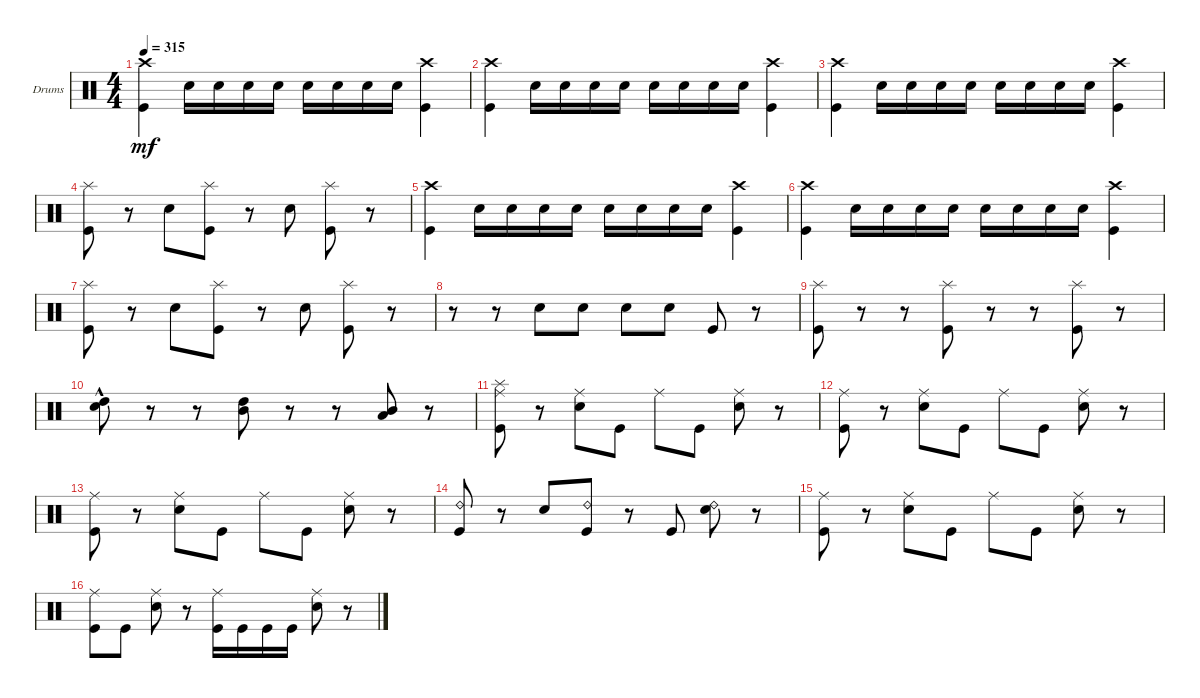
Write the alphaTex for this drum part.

\bracketExtendMode groupsimilarinstruments
\firstSystemTrackNameOrientation horizontal
\otherSystemsTrackNameOrientation horizontal
\track ("Drumkit" "Drums") {instrument percussion}
\staff {score}
\articulation defaults
\ts (4 4)
\tempo 315
\clef neutral
\ks c
("Kick (hit)" "Crash high (hit)").4{dy mf} "Snare (hit) 2".16 "Snare (hit) 2".16 "Snare (hit) 2".16 "Snare (hit) 2".16 "Snare (hit) 2".16 "Snare (hit) 2".16 "Snare (hit) 2".16 "Snare (hit) 2".16 ("Kick (hit)" "Crash high (hit)").4 |
("Kick (hit)" "Crash high (hit)").4 "Snare (hit) 2".16 "Snare (hit) 2".16 "Snare (hit) 2".16 "Snare (hit) 2".16 "Snare (hit) 2".16 "Snare (hit) 2".16 "Snare (hit) 2".16 "Snare (hit) 2".16 ("Kick (hit)" "Crash high (hit)").4 |
("Kick (hit)" "Crash high (hit)").4 "Snare (hit) 2".16 "Snare (hit) 2".16 "Snare (hit) 2".16 "Snare (hit) 2".16 "Snare (hit) 2".16 "Snare (hit) 2".16 "Snare (hit) 2".16 "Snare (hit) 2".16 ("Kick (hit)" "Crash high (hit)").4 |
("Kick (hit)" "Splash (hit)").8 r.8 "Snare (hit) 2".8 ("Kick (hit)" "Splash (hit)").8 r.8 "Snare (hit) 2".8 ("Kick (hit)" "Splash (hit)").8 r.8 |
("Kick (hit)" "Crash high (hit)").4 "Snare (hit) 2".16 "Snare (hit) 2".16 "Snare (hit) 2".16 "Snare (hit) 2".16 "Snare (hit) 2".16 "Snare (hit) 2".16 "Snare (hit) 2".16 "Snare (hit) 2".16 ("Kick (hit)" "Crash high (hit)").4 |
("Kick (hit)" "Crash high (hit)").4 "Snare (hit) 2".16 "Snare (hit) 2".16 "Snare (hit) 2".16 "Snare (hit) 2".16 "Snare (hit) 2".16 "Snare (hit) 2".16 "Snare (hit) 2".16 "Snare (hit) 2".16 ("Kick (hit)" "Crash high (hit)").4 |
("Kick (hit)" "Splash (hit)").8 r.8 "Snare (hit) 2".8 ("Kick (hit)" "Splash (hit)").8 r.8 "Snare (hit) 2".8 ("Kick (hit)" "Splash (hit)").8 r.8 |
r.8 r.8 "Snare (hit) 2".8 "Snare (hit) 2".8 "Snare (hit) 2".8 "Snare (hit) 2".8 "Kick (hit)".8 r.8 |
("Kick (hit)" "Splash (hit)").8 r.8 r.8 ("Kick (hit)" "Splash (hit)").8 r.8 r.8 ("Kick (hit)" "Splash (hit)").8 r.8 |
("Snare (hit) 2"{hac} "High Tom (hit)").8 r.8 r.8 ("High Tom (hit)" "Mid Tom (hit)").8 r.8 r.8 ("Mid Tom (hit)" "Low Tom (hit)").8 r.8 |
("Kick (hit)" "Ride (middle)" "Splash (hit)").8 r.8 ("Snare (hit) 2" "Ride (middle)").8 "Kick (hit)".8 "Ride (middle)".8 "Kick (hit)".8 ("Snare (hit) 2" "Ride (middle)").8 r.8 |
("Kick (hit)" "Ride (middle)").8 r.8 ("Snare (hit) 2" "Ride (middle)").8 "Kick (hit)".8 "Ride (middle)".8 "Kick (hit)".8 ("Snare (hit) 2" "Ride (middle)").8 r.8 |
("Kick (hit)" "Ride (middle)").8 r.8 ("Snare (hit) 2" "Ride (middle)").8 "Kick (hit)".8 "Ride (middle)".8 "Kick (hit)".8 ("Snare (hit) 2" "Ride (middle)").8 r.8 |
("Kick (hit)" "Ride (bell) 2").8 r.8 "Snare (hit) 2".8 ("Kick (hit)" "Ride (bell) 2").8 r.8 "Kick (hit)".8 ("Snare (hit) 2" "Ride (bell) 2").8 r.8 |
("Kick (hit)" "Ride (middle)").8 r.8 ("Snare (hit) 2" "Ride (middle)").8 "Kick (hit)".8 "Ride (middle)".8 "Kick (hit)".8 ("Snare (hit) 2" "Ride (middle)").8 r.8 |
("Kick (hit)" "Ride (middle)").8 "Kick (hit)".8 ("Snare (hit) 2" "Ride (middle)").8 r.8 ("Kick (hit)" "Ride (middle)").16 "Kick (hit)".16 "Kick (hit)".16 "Kick (hit)".16 ("Snare (hit) 2" "Ride (middle)").8 r.8
